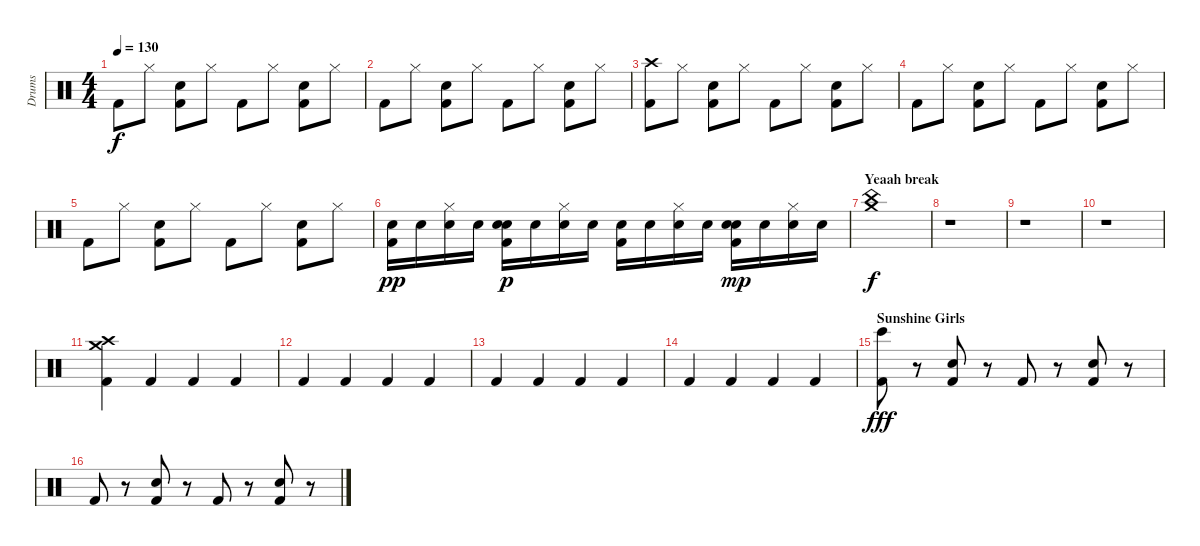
\track ("Drums" "Drums") {instrument percussion}
\staff {score}
\articulation defaults
\ts (4 4)
\tempo 130
\clef neutral
\ks c "Kick (hit) 2".8{dy f} "Hi-Hat (closed)".8
("Hand Clap (hit)" "Kick (hit) 2").8 "Hi-Hat (closed)".8 "Kick (hit) 2".8 "Hi-Hat (closed)".8 ("Hand Clap (hit)" "Kick (hit) 2").8 "Hi-Hat (closed)".8 |
"Kick (hit) 2".8 "Hi-Hat (closed)".8 ("Hand Clap (hit)" "Kick (hit) 2").8 "Hi-Hat (closed)".8 "Kick (hit) 2".8 "Hi-Hat (closed)".8 ("Hand Clap (hit)" "Kick (hit) 2").8 "Hi-Hat (closed)".8 |
("Crash high (hit)" "Kick (hit) 2").8 "Hi-Hat (closed)".8 ("Hand Clap (hit)" "Kick (hit) 2").8 "Hi-Hat (closed)".8 "Kick (hit) 2".8 "Hi-Hat (closed)".8 ("Hand Clap (hit)" "Kick (hit) 2").8 "Hi-Hat (closed)".8 |
"Kick (hit) 2".8 "Hi-Hat (closed)".8 ("Hand Clap (hit)" "Kick (hit) 2").8 "Hi-Hat (closed)".8 "Kick (hit) 2".8 "Hi-Hat (closed)".8 ("Hand Clap (hit)" "Kick (hit) 2").8 "Hi-Hat (closed)".8 |
"Kick (hit) 2".8 "Hi-Hat (closed)".8 ("Hand Clap (hit)" "Kick (hit) 2").8 "Hi-Hat (closed)".8 "Kick (hit) 2".8 "Hi-Hat (closed)".8 ("Hand Clap (hit)" "Kick (hit) 2").8 "Hi-Hat (closed)".8 |
("Snare (hit) 2" "Kick (hit) 2").16{dy pp} "Snare (hit) 2".16 ("Snare (hit) 2" "Hi-Hat (closed)").16 "Snare (hit) 2".16 ("Snare (hit) 2" "Hand Clap (hit)" "Kick (hit) 2").16{dy p} "Snare (hit) 2".16 ("Snare (hit) 2" "Hi-Hat (closed)").16 "Snare (hit) 2".16 ("Snare (hit) 2" "Kick (hit) 2").16 "Snare (hit) 2".16 ("Snare (hit) 2" "Hi-Hat (closed)").16 "Snare (hit) 2".16 ("Snare (hit) 2" "Hand Clap (hit)" "Kick (hit) 2").16{dy mp} "Snare (hit) 2".16 ("Snare (hit) 2" "Hi-Hat (closed)").16 "Snare (hit) 2".16 |
\section ("" "Yeaah break")
("Crash medium (hit)" "China (hit)").1{dy f} |
r.1 |
r.1 |
r.1 |
("Crash medium (hit)" "Crash high (hit)" "Kick (hit) 2").4 "Kick (hit) 2".4 "Kick (hit) 2".4 "Kick (hit) 2".4 |
"Kick (hit) 2".4 "Kick (hit) 2".4 "Kick (hit) 2".4 "Kick (hit) 2".4 |
"Kick (hit) 2".4 "Kick (hit) 2".4 "Kick (hit) 2".4 "Kick (hit) 2".4 |
"Kick (hit) 2".4 "Kick (hit) 2".4 "Kick (hit) 2".4 "Kick (hit) 2".4 |
\section ("" "Sunshine Girls")
("Bongo High (hit)" "Kick (hit) 2").8{dy fff} r.8 ("Hand Clap (hit)" "Kick (hit) 2").8 r.8 "Kick (hit) 2".8 r.8 ("Hand Clap (hit)" "Kick (hit) 2").8 r.8 |
"Kick (hit) 2".8 r.8 ("Hand Clap (hit)" "Kick (hit) 2").8 r.8 "Kick (hit) 2".8 r.8 ("Hand Clap (hit)" "Kick (hit) 2").8 r.8
